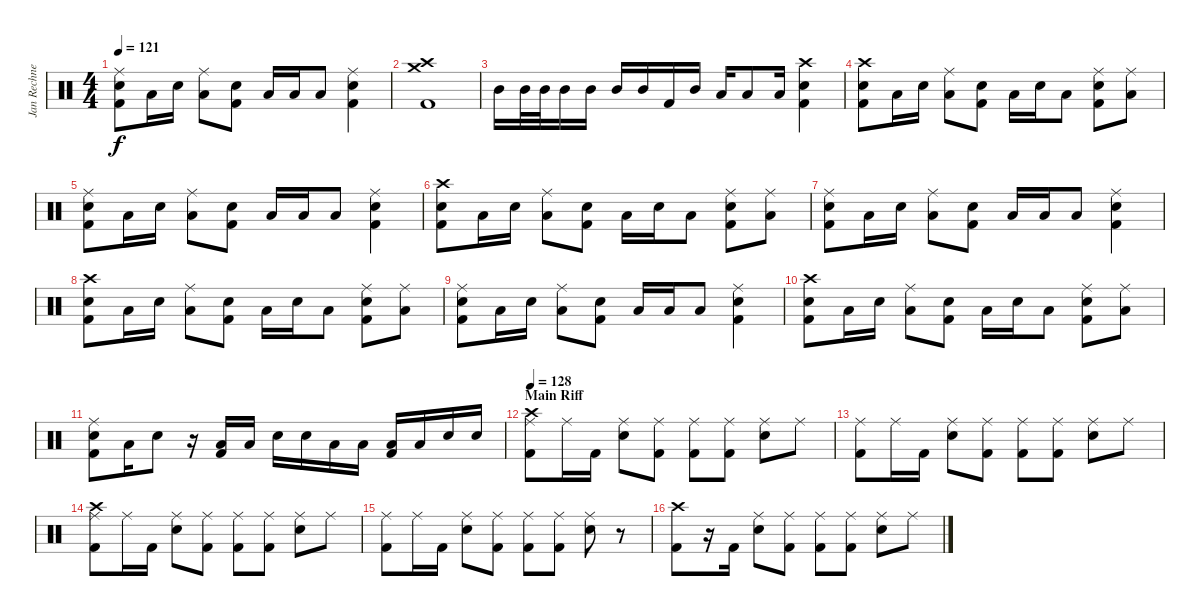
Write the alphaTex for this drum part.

\track ("Jan Rechnerger" "Jan Rechne") {instrument percussion}
\staff {score}
\articulation defaults
\ts (4 4)
\tempo 121
\clef neutral
\ks c
("Ride (middle)" "Snare (hit) 2" "Kick (hit) 2").8{dy f} "Low Tom (hit)".16 "Snare (hit) 2".16 ("Ride (middle)" "Low Tom (hit)").8 ("Snare (hit) 2" "Kick (hit) 2").8 "Low Tom (hit)".16 "Low Tom (hit)".16 "Low Tom (hit)".8 ("Ride (middle)" "Snare (hit) 2" "Kick (hit) 2").4 |
("Crash high (hit)" "Crash medium (hit)" "Kick (hit) 2").1 |
"Mid Tom (hit)".16 "Mid Tom (hit)".32 "Mid Tom (hit)".32 "Mid Tom (hit)".16 "Mid Tom (hit)".16 "Mid Tom (hit)".16 "Mid Tom (hit)".16 "Kick (hit) 2".16 "Mid Tom (hit)".16 "Low Tom (hit)".16 "Low Tom (hit)".8 "Low Tom (hit)".16 ("Crash high (hit)" "Snare (hit) 2" "Kick (hit) 2").4 |
("Crash high (hit)" "Snare (hit) 2" "Kick (hit) 2").8 "Low Tom (hit)".16 "Snare (hit) 2".16 ("Ride (middle)" "Low Tom (hit)").8 ("Snare (hit) 2" "Kick (hit) 2").8 "Low Tom (hit)".16 "Snare (hit) 2".16 "Low Tom (hit)".8 ("Ride (middle)" "Snare (hit) 2" "Kick (hit) 2").8 ("Ride (middle)" "Low Tom (hit)").8 |
("Ride (middle)" "Snare (hit) 2" "Kick (hit) 2").8 "Low Tom (hit)".16 "Snare (hit) 2".16 ("Ride (middle)" "Low Tom (hit)").8 ("Snare (hit) 2" "Kick (hit) 2").8 "Low Tom (hit)".16 "Low Tom (hit)".16 "Low Tom (hit)".8 ("Ride (middle)" "Snare (hit) 2" "Kick (hit) 2").4 |
("Crash high (hit)" "Snare (hit) 2" "Kick (hit) 2").8 "Low Tom (hit)".16 "Snare (hit) 2".16 ("Ride (middle)" "Low Tom (hit)").8 ("Snare (hit) 2" "Kick (hit) 2").8 "Low Tom (hit)".16 "Snare (hit) 2".16 "Low Tom (hit)".8 ("Ride (middle)" "Snare (hit) 2" "Kick (hit) 2").8 ("Ride (middle)" "Low Tom (hit)").8 |
("Ride (middle)" "Snare (hit) 2" "Kick (hit) 2").8 "Low Tom (hit)".16 "Snare (hit) 2".16 ("Ride (middle)" "Low Tom (hit)").8 ("Snare (hit) 2" "Kick (hit) 2").8 "Low Tom (hit)".16 "Low Tom (hit)".16 "Low Tom (hit)".8 ("Ride (middle)" "Snare (hit) 2" "Kick (hit) 2").4 |
("Crash high (hit)" "Snare (hit) 2" "Kick (hit) 2").8 "Low Tom (hit)".16 "Snare (hit) 2".16 ("Ride (middle)" "Low Tom (hit)").8 ("Snare (hit) 2" "Kick (hit) 2").8 "Low Tom (hit)".16 "Snare (hit) 2".16 "Low Tom (hit)".8 ("Ride (middle)" "Snare (hit) 2" "Kick (hit) 2").8 ("Ride (middle)" "Low Tom (hit)").8 |
("Ride (middle)" "Snare (hit) 2" "Kick (hit) 2").8 "Low Tom (hit)".16 "Snare (hit) 2".16 ("Ride (middle)" "Low Tom (hit)").8 ("Snare (hit) 2" "Kick (hit) 2").8 "Low Tom (hit)".16 "Low Tom (hit)".16 "Low Tom (hit)".8 ("Ride (middle)" "Snare (hit) 2" "Kick (hit) 2").4 |
("Crash high (hit)" "Snare (hit) 2" "Kick (hit) 2").8 "Low Tom (hit)".16 "Snare (hit) 2".16 ("Ride (middle)" "Low Tom (hit)").8 ("Snare (hit) 2" "Kick (hit) 2").8 "Low Tom (hit)".16 "Snare (hit) 2".16 "Low Tom (hit)".8 ("Ride (middle)" "Snare (hit) 2" "Kick (hit) 2").8 ("Ride (middle)" "Low Tom (hit)").8 |
("Ride (middle)" "Snare (hit) 2" "Kick (hit) 2").8 "Low Tom (hit)".16 "Snare (hit) 2".8 r.16 ("Low Tom (hit)" "Kick (hit) 2").16 "Low Tom (hit)".16 "Snare (hit) 2".16 "Snare (hit) 2".16 "Low Tom (hit)".16 "Low Tom (hit)".16 ("Low Tom (hit)" "Kick (hit) 2").16 "Low Tom (hit)".16 "Snare (hit) 2".16 "Snare (hit) 2".16 |
\section ("" "Main Riff")
\tempo 128
("Crash high (hit)" "Ride (middle)" "Kick (hit) 2").8 "Ride (middle)".16 "Kick (hit) 2".16 ("Ride (middle)" "Snare (hit) 2").8 ("Ride (middle)" "Kick (hit) 2").8 ("Ride (middle)" "Kick (hit) 2").8 ("Ride (middle)" "Kick (hit) 2").8 ("Ride (middle)" "Snare (hit) 2").8 "Ride (middle)".8 |
("Ride (middle)" "Kick (hit) 2").8 "Ride (middle)".16 "Kick (hit) 2".16 ("Ride (middle)" "Snare (hit) 2").8 ("Ride (middle)" "Kick (hit) 2").8 ("Ride (middle)" "Kick (hit) 2").8 ("Ride (middle)" "Kick (hit) 2").8 ("Ride (middle)" "Snare (hit) 2").8 "Ride (middle)".8 |
("Crash high (hit)" "Ride (middle)" "Kick (hit) 2").8 "Ride (middle)".16 "Kick (hit) 2".16 ("Ride (middle)" "Snare (hit) 2").8 ("Ride (middle)" "Kick (hit) 2").8 ("Ride (middle)" "Kick (hit) 2").8 ("Ride (middle)" "Kick (hit) 2").8 ("Ride (middle)" "Snare (hit) 2").8 "Ride (middle)".8 |
("Ride (middle)" "Kick (hit) 2").8 "Ride (middle)".16 "Kick (hit) 2".16 ("Ride (middle)" "Snare (hit) 2").8 ("Ride (middle)" "Kick (hit) 2").8 ("Ride (middle)" "Kick (hit) 2").8 ("Ride (middle)" "Kick (hit) 2").8 ("Ride (middle)" "Snare (hit) 2").8 r.8 |
("Crash high (hit)" "Kick (hit) 2").8 r.16 "Kick (hit) 2".16 ("Ride (middle)" "Snare (hit) 2").8 ("Ride (middle)" "Kick (hit) 2").8 ("Ride (middle)" "Kick (hit) 2").8 ("Ride (middle)" "Kick (hit) 2").8 ("Ride (middle)" "Snare (hit) 2").8 "Ride (middle)".8
